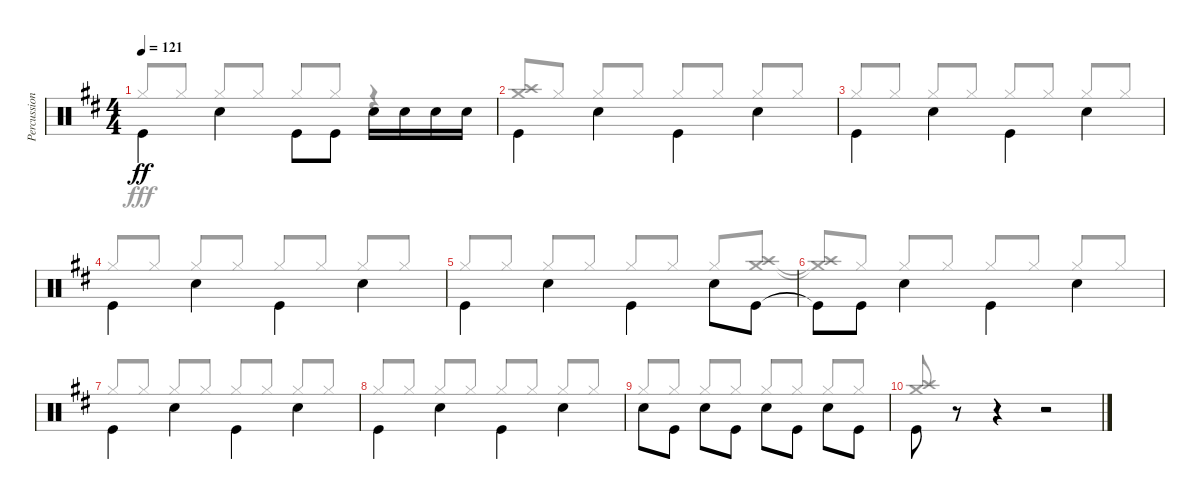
\track ("Percussions" "Percussion") {instrument percussion}
\staff {score}
\articulation defaults
\voice
\ts (4 4)
\tempo 121
\clef neutral
\ks d "Kick (hit)".4{dy ff beam Down} "Snare (hit) 2".4{beam Down} "Kick (hit)".8{beam Down} "Kick (hit)".8{beam Down} "Snare (hit) 2".16{beam Down} "Snare (hit) 2".16{beam Down} "Snare (hit) 2".16{beam Down} "Snare (hit) 2".16{beam Down}
|
"Kick (hit)".4{beam Down} "Snare (hit) 2".4{beam Down} "Kick (hit)".4{beam Down} "Snare (hit) 2".4{beam Down} |
"Kick (hit)".4{beam Down} "Snare (hit) 2".4{beam Down} "Kick (hit)".4{beam Down} "Snare (hit) 2".4{beam Down} |
"Kick (hit)".4{beam Down} "Snare (hit) 2".4{beam Down} "Kick (hit)".4{beam Down} "Snare (hit) 2".4{beam Down} |
"Kick (hit)".4{beam Down} "Snare (hit) 2".4{beam Down} "Kick (hit)".4{beam Down} "Snare (hit) 2".8{beam Down} "Kick (hit)".8{beam Down} |
"Kick (hit)"{t}.8{beam Down} "Kick (hit)".8{beam Down} "Snare (hit) 2".4{beam Down} "Kick (hit)".4{beam Down} "Snare (hit) 2".4{beam Down} |
"Kick (hit)".4{beam Down} "Snare (hit) 2".4{beam Down} "Kick (hit)".4{beam Down} "Snare (hit) 2".4{beam Down} |
"Kick (hit)".4{beam Down} "Snare (hit) 2".4{beam Down} "Kick (hit)".4{beam Down} "Snare (hit) 2".4{beam Down} |
"Snare (hit) 2".8{beam Down} "Kick (hit)".8{beam Down} "Snare (hit) 2".8{beam Down} "Kick (hit)".8{beam Down} "Snare (hit) 2".8{beam Down} "Kick (hit)".8{beam Down} "Snare (hit) 2".8{beam Down} "Kick (hit)".8{beam Down} |
"Kick (hit)".8{beam Down} r.8 r.4 r.2 |
|
|
|
|
|
\voice
\clef neutral
\ottava regular
\simile none
\ks d "Hi-Hat (closed)".8{dy fff beam Up} "Hi-Hat (closed)".8{beam Up} "Hi-Hat (closed)".8{beam Up} "Hi-Hat (closed)".8{beam Up} "Hi-Hat (closed)".8{beam Up} "Hi-Hat (closed)".8{beam Up}
r.4 |
("Crash medium (hit)" "Crash high (hit)").8{beam Up} "Hi-Hat (closed)".8{beam Up} "Hi-Hat (closed)".8{beam Up} "Hi-Hat (closed)".8{beam Up} "Hi-Hat (closed)".8{beam Up} "Hi-Hat (closed)".8{beam Up} "Hi-Hat (closed)".8{beam Up} "Hi-Hat (closed)".8{beam Up} |
"Hi-Hat (closed)".8{beam Up} "Hi-Hat (closed)".8 "Hi-Hat (closed)".8{beam Up} "Hi-Hat (closed)".8{beam Up} "Hi-Hat (closed)".8{beam Up} "Hi-Hat (closed)".8{beam Up} "Hi-Hat (closed)".8{beam Up} "Hi-Hat (closed)".8{beam Up} |
"Hi-Hat (closed)".8{beam Up} "Hi-Hat (closed)".8 "Hi-Hat (closed)".8{beam Up} "Hi-Hat (closed)".8{beam Up} "Hi-Hat (closed)".8{beam Up} "Hi-Hat (closed)".8{beam Up} "Hi-Hat (closed)".8{beam Up} "Hi-Hat (closed)".8{beam Up} |
"Hi-Hat (closed)".8{beam Up} "Hi-Hat (closed)".8{beam Up} "Hi-Hat (closed)".8{beam Up} "Hi-Hat (closed)".8{beam Up} "Hi-Hat (closed)".8{beam Up} "Hi-Hat (closed)".8{beam Up} "Hi-Hat (closed)".8{beam Up} ("Crash medium (hit)" "Crash high (hit)").8 |
("Crash medium (hit)"{t} "Crash high (hit)"{t}).8{beam Up} "Hi-Hat (closed)".8 "Hi-Hat (closed)".8{beam Up} "Hi-Hat (closed)".8{beam Up} "Hi-Hat (closed)".8{beam Up} "Hi-Hat (closed)".8{beam Up} "Hi-Hat (closed)".8{beam Up} "Hi-Hat (closed)".8{beam Up} |
"Hi-Hat (closed)".8{beam Up} "Hi-Hat (closed)".8 "Hi-Hat (closed)".8{beam Up} "Hi-Hat (closed)".8{beam Up} "Hi-Hat (closed)".8{beam Up} "Hi-Hat (closed)".8{beam Up} "Hi-Hat (closed)".8{beam Up} "Hi-Hat (closed)".8{beam Up} |
"Hi-Hat (closed)".8{beam Up} "Hi-Hat (closed)".8 "Hi-Hat (closed)".8{beam Up} "Hi-Hat (closed)".8{beam Up} "Hi-Hat (closed)".8{beam Up} "Hi-Hat (closed)".8{beam Up} "Hi-Hat (closed)".8{beam Up} "Hi-Hat (closed)".8{beam Up} |
"Hi-Hat (closed)".8{beam Up} "Hi-Hat (closed)".8 "Hi-Hat (closed)".8{beam Up} "Hi-Hat (closed)".8{beam Up} "Hi-Hat (closed)".8{beam Up} "Hi-Hat (closed)".8{beam Up} "Hi-Hat (closed)".8{beam Up} "Hi-Hat (closed)".8{beam Up} |
("Crash medium (hit)" "Crash high (hit)").8{beam Up} r.8 r.4 r.2 |
|
|
|
|
|
